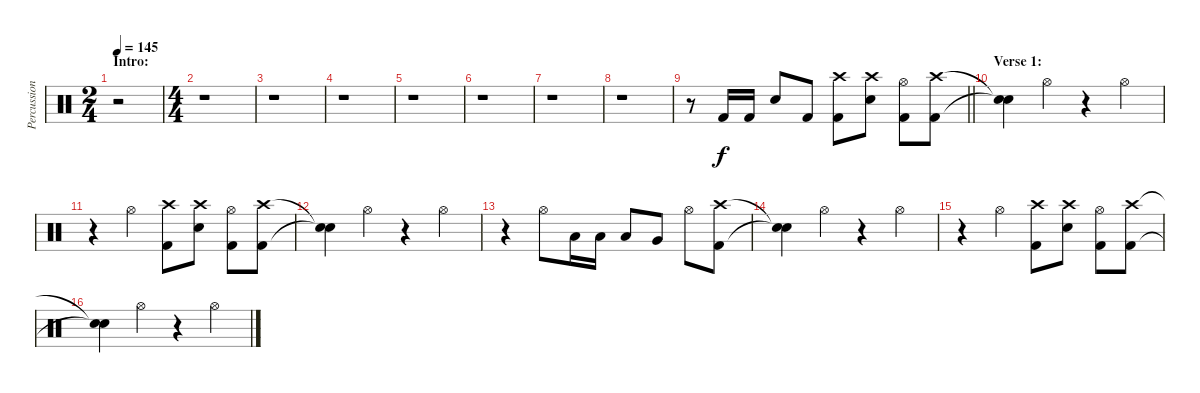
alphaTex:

\track ("Percussion" "Percussion") {instrument percussion}
\staff {score}
\articulation defaults
\ts (2 4)
\section ("" "Intro:")
\tempo 145
\clef neutral
\ks c
r.2{dy f} |
\ts (4 4)
r.1 |
r.1 |
r.1 |
r.1 |
r.1 |
r.1 |
r.1 |
\barLineRight lightlight
r.8 "Kick (hit) 2".16 "Kick (hit) 2".16 "Electric Snare (hit)".8 "Kick (hit) 2".8 ("Crash high (hit)" "Kick (hit) 2").8 ("Crash high (hit)" "Electric Snare (hit)").8 ("Hi-Hat (open)" "Kick (hit) 2").8 ("Crash high (hit)" "Kick (hit) 2").8 |
\section ("" "Verse 1:")
("Snare (hit)"{t} "Snare (hit)"{t}).4 "Hi-Hat (open)".4 r.4 "Hi-Hat (open)".4 |
r.4 "Hi-Hat (open)".4 ("Crash high (hit)" "Kick (hit) 2").8 ("Crash high (hit)" "Electric Snare (hit)").8 ("Hi-Hat (open)" "Kick (hit) 2").8 ("Crash high (hit)" "Kick (hit) 2").8 |
("Snare (hit)"{t} "Snare (hit)"{t}).4 "Hi-Hat (open)".4 r.4 "Hi-Hat (open)".4 |
r.4 "Hi-Hat (open)".8 "Low Tom (hit)".16 "Low Tom (hit)".16 "Low Tom (hit)".8 "Very Low Tom (hit)".8 "Hi-Hat (open)".8 ("Crash high (hit)" "Kick (hit) 2").8 |
("Snare (hit)"{t} "Snare (hit)"{t}).4 "Hi-Hat (open)".4 r.4 "Hi-Hat (open)".4 |
r.4 "Hi-Hat (open)".4 ("Crash high (hit)" "Kick (hit) 2").8 ("Crash high (hit)" "Electric Snare (hit)").8 ("Hi-Hat (open)" "Kick (hit) 2").8 ("Crash high (hit)" "Kick (hit) 2").8 |
("Snare (hit)"{t} "Snare (hit)"{t}).4 "Hi-Hat (open)".4 r.4 "Hi-Hat (open)".4
